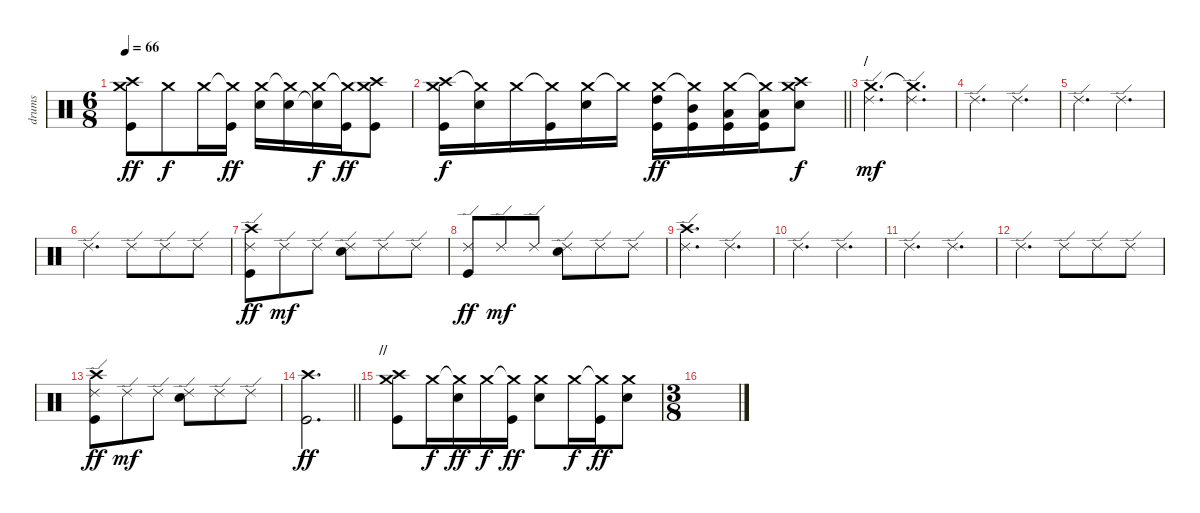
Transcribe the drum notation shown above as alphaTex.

\track ("drums" "drums") {instrument percussion}
\staff {score}
\articulation defaults
\ts (6 8)
\tempo 66
\clef neutral
\ks c
("Crash high (hit)" "Crash medium (hit)" "Kick (hit)").8{dy ff} "Crash medium (hit)".8{dy f} "Crash medium (hit)".16 ("Crash medium (hit)"{t} "Kick (hit)").16{dy ff} ("Crash medium (hit)" "Electric Snare (hit)").16 ("Crash medium (hit)"{t} "Electric Snare (hit)").16 ("Crash medium (hit)" "Electric Snare (hit)"{t}).16{dy f} ("Crash medium (hit)"{t} "Kick (hit)").16{dy ff} ("Crash high (hit)" "Crash medium (hit)" "Kick (hit)").8 |
\barLineRight lightlight
("Crash high (hit)" "Crash medium (hit)" "Kick (hit)").16{dy f} ("Crash medium (hit)"{t} "Electric Snare (hit)").16 "Crash medium (hit)".16 ("Crash medium (hit)"{t} "Kick (hit)").16 ("Crash medium (hit)" "Electric Snare (hit)").16 "Crash medium (hit)"{t}.16 ("Crash medium (hit)" "High Tom (hit)" "Kick (hit)").16{dy ff} ("Crash medium (hit)"{t} "Mid Tom (hit)" "Kick (hit)").16 ("Crash medium (hit)" "Low Tom (hit)" "Kick (hit)").16 ("Crash medium (hit)"{t} "Low Floor Tom (hit)" "Kick (hit)").16 ("Crash high (hit)" "Crash medium (hit)" "Electric Snare (hit)").8{dy f} |
\section ("" "/")
("Crash medium (hit)" "Ride (edge) 2").4{d dy mf} ("Crash medium (hit)"{t} "Ride (edge) 2").4{d} |
"Ride (edge) 2".4{d} "Ride (edge) 2".4{d} |
"Ride (edge) 2".4{d} "Ride (edge) 2".4{d} |
"Ride (edge) 2".4{d} "Ride (edge) 2".8 "Ride (edge) 2".8 "Ride (edge) 2".8 |
("Crash high (hit)" "Ride (edge) 2" "Kick (hit)").8{dy ff} "Ride (edge) 2".8{dy mf} "Ride (edge) 2".8 ("Ride (edge) 2" "Electric Snare (hit)").8 "Ride (edge) 2".8 "Ride (edge) 2".8 |
("Ride (edge) 2" "Kick (hit)").8{dy ff} "Ride (edge) 2".8{dy mf} "Ride (edge) 2".8 ("Ride (edge) 2" "Electric Snare (hit)").8 "Ride (edge) 2".8 "Ride (edge) 2".8 |
("Crash high (hit)" "Ride (edge) 2").4{d} "Ride (edge) 2".4{d} |
"Ride (edge) 2".4{d} "Ride (edge) 2".4{d} |
"Ride (edge) 2".4{d} "Ride (edge) 2".4{d} |
"Ride (edge) 2".4{d} "Ride (edge) 2".8 "Ride (edge) 2".8 "Ride (edge) 2".8 |
("Crash high (hit)" "Ride (edge) 2" "Kick (hit)").8{dy ff} "Ride (edge) 2".8{dy mf} "Ride (edge) 2".8 ("Ride (edge) 2" "Electric Snare (hit)").8 "Ride (edge) 2".8 "Ride (edge) 2".8 |
\barLineRight lightlight
("Crash high (hit)" "Kick (hit)").2{d dy ff} |
\section ("" "//")
("Crash high (hit)" "Crash medium (hit)" "Kick (hit)").8 "Crash medium (hit)".16{dy f} ("Crash medium (hit)"{t} "Electric Snare (hit)").16{dy ff} "Crash medium (hit)".16{dy f} ("Crash medium (hit)"{t} "Kick (hit)").16{dy ff} ("Crash medium (hit)" "Electric Snare (hit)").8 "Crash medium (hit)".16{dy f} ("Crash medium (hit)"{t} "Kick (hit)").16{dy ff} ("Crash medium (hit)" "Electric Snare (hit)").8 |
\ts (3 8)
